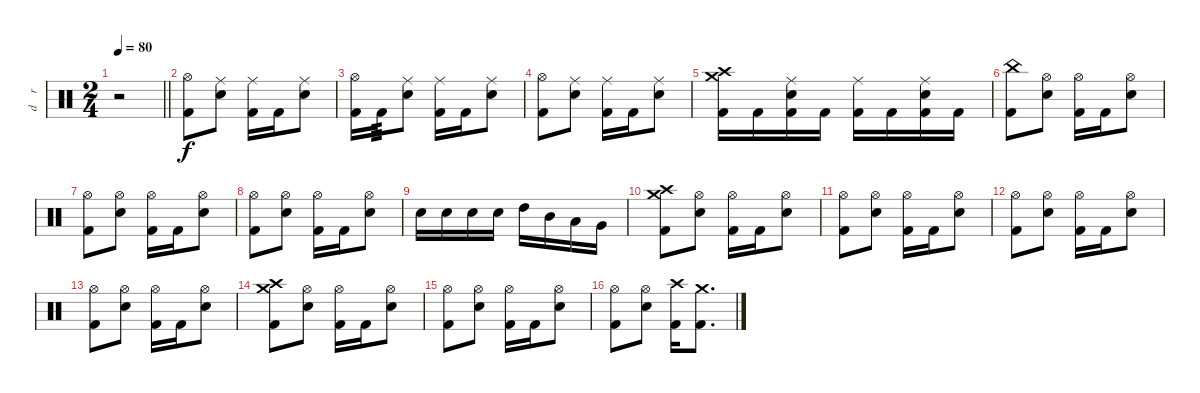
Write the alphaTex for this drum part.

\track ("d    r     u    m    s" "d    r    ") {instrument percussion}
\staff {score}
\articulation defaults
\ts (2 4)
\tempo 80
\clef neutral
\barLineRight lightlight
\ks c
r.2{dy f} |
("Hi-Hat (open)" "Kick (hit) 2").8 ("Ride (middle)" "Electric Snare (hit)").8 ("Ride (middle)" "Kick (hit) 2").16 "Kick (hit) 2".16 ("Ride (middle)" "Electric Snare (hit)").8 |
("Hi-Hat (open)" "Kick (hit) 2").16 "Kick (hit) 2".16{tp 3} ("Ride (middle)" "Electric Snare (hit)").8 ("Ride (middle)" "Kick (hit) 2").16 "Kick (hit) 2".16 ("Ride (middle)" "Electric Snare (hit)").8 |
("Hi-Hat (open)" "Kick (hit) 2").8 ("Ride (middle)" "Electric Snare (hit)").8 ("Ride (middle)" "Kick (hit) 2").16 "Kick (hit) 2".16 ("Ride (middle)" "Electric Snare (hit)").8 |
("Crash high (hit)" "Crash medium (hit)" "Kick (hit) 2").16 "Kick (hit) 2".16 ("Ride (middle)" "Electric Snare (hit)" "Kick (hit) 2").16 "Kick (hit) 2".16 ("Ride (middle)" "Kick (hit) 2").16 "Kick (hit) 2".16 ("Ride (middle)" "Electric Snare (hit)" "Kick (hit) 2").16 "Kick (hit) 2".16 |
("China (hit)" "Kick (hit) 2").8 ("Hi-Hat (open)" "Electric Snare (hit)").8 ("Hi-Hat (open)" "Kick (hit) 2").16 "Kick (hit) 2".16 ("Hi-Hat (open)" "Electric Snare (hit)").8 |
("Hi-Hat (open)" "Kick (hit) 2").8 ("Hi-Hat (open)" "Electric Snare (hit)").8 ("Hi-Hat (open)" "Kick (hit) 2").16 "Kick (hit) 2".16 ("Hi-Hat (open)" "Electric Snare (hit)").8 |
("Hi-Hat (open)" "Kick (hit) 2").8 ("Hi-Hat (open)" "Electric Snare (hit)").8 ("Hi-Hat (open)" "Kick (hit) 2").16 "Kick (hit) 2".16 ("Hi-Hat (open)" "Electric Snare (hit)").8 |
"Electric Snare (hit)".16 "Electric Snare (hit)".16 "Electric Snare (hit)".16 "Electric Snare (hit)".16 "High Tom (hit)".16 "Mid Tom (hit)".16 "Low Tom (hit)".16 "Very Low Tom (hit)".16 |
("Crash high (hit)" "Crash medium (hit)" "Kick (hit) 2").8 ("Hi-Hat (open)" "Electric Snare (hit)").8 ("Hi-Hat (open)" "Kick (hit) 2").16 "Kick (hit) 2".16 ("Hi-Hat (open)" "Electric Snare (hit)").8 |
("Hi-Hat (open)" "Kick (hit) 2").8 ("Hi-Hat (open)" "Electric Snare (hit)").8 ("Hi-Hat (open)" "Kick (hit) 2").16 "Kick (hit) 2".16 ("Hi-Hat (open)" "Electric Snare (hit)").8 |
("Hi-Hat (open)" "Kick (hit) 2").8 ("Hi-Hat (open)" "Electric Snare (hit)").8 ("Hi-Hat (open)" "Kick (hit) 2").16 "Kick (hit) 2".16 ("Hi-Hat (open)" "Electric Snare (hit)").8 |
("Hi-Hat (open)" "Kick (hit) 2").8 ("Hi-Hat (open)" "Electric Snare (hit)").8 ("Hi-Hat (open)" "Kick (hit) 2").16 "Kick (hit) 2".16 ("Hi-Hat (open)" "Electric Snare (hit)").8 |
("Crash high (hit)" "Crash medium (hit)" "Kick (hit) 2").8 ("Hi-Hat (open)" "Electric Snare (hit)").8 ("Hi-Hat (open)" "Kick (hit) 2").16 "Kick (hit) 2".16 ("Hi-Hat (open)" "Electric Snare (hit)").8 |
("Hi-Hat (open)" "Kick (hit) 2").8 ("Hi-Hat (open)" "Electric Snare (hit)").8 ("Hi-Hat (open)" "Kick (hit) 2").16 "Kick (hit) 2".16 ("Hi-Hat (open)" "Electric Snare (hit)").8 |
("Hi-Hat (open)" "Kick (hit) 2").8 ("Hi-Hat (open)" "Electric Snare (hit)").8 ("Crash high (hit)" "Kick (hit) 2").16 ("Crash medium (hit)" "Kick (hit) 2").8{d}
